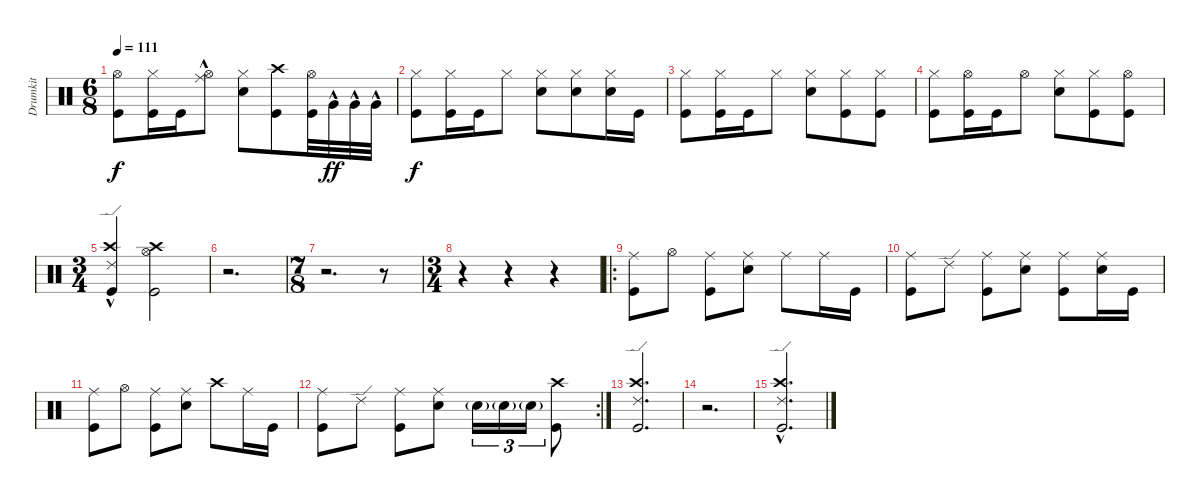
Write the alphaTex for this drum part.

\track ("Drumkit" "Drumkit") {instrument percussion}
\staff {score}
\articulation defaults
\ts (6 8)
\tempo 111
\clef neutral
\ks c
("Kick (hit)" "Hi-Hat (open)").8{dy f} ("Kick (hit)" "Hi-Hat (closed)").16 "Kick (hit)".16 ("Ride (middle)"{hac} "Hi-Hat (open)"{hac}).8 ("Snare (hit) 2" "Hi-Hat (closed)").8 ("Kick (hit)" "Crash high (hit)").8 ("Kick (hit)" "Hi-Hat (open)").32 "Very Low Tom (hit)"{hac}.32{dy ff} "Very Low Tom (hit)"{hac}.32 "Very Low Tom (hit)"{hac}.32 |
("Kick (hit)" "Hi-Hat (closed)").8{dy f} ("Kick (hit)" "Hi-Hat (closed)").16 "Kick (hit)".16 "Hi-Hat (closed)".8 ("Hi-Hat (closed)" "Snare (hit) 2").8 ("Hi-Hat (closed)" "Snare (hit) 2").8 ("Hi-Hat (closed)" "Snare (hit) 2").16 "Kick (hit)".16 |
("Kick (hit)" "Hi-Hat (closed)").8 ("Kick (hit)" "Hi-Hat (closed)").16 "Kick (hit)".16 "Hi-Hat (closed)".8 ("Hi-Hat (closed)" "Snare (hit) 2").8 ("Hi-Hat (closed)" "Kick (hit)").8 ("Hi-Hat (closed)" "Kick (hit)").8 |
("Kick (hit)" "Hi-Hat (closed)").8 ("Kick (hit)" "Hi-Hat (open)").16 "Kick (hit)".16 "Hi-Hat (open)".8 ("Hi-Hat (closed)" "Snare (hit) 2").8 ("Hi-Hat (closed)" "Kick (hit)").8 ("Hi-Hat (open)" "Kick (hit)").8 |
\ts (3 4)
("Kick (hit)" "Crash high (hit)"{hac} "Ride (edge) 2"{hac}).4 ("Kick (hit)" "Hi-Hat (open)" "Crash high (hit)").2 |
r.2{d} |
\ts (7 8)
r.2{d} r.8 |
\ts (3 4)
r.4 r.4 r.4 |
\ro
("Kick (hit)" "Ride (middle)").8 "Hi-Hat (open)".8 ("Kick (hit)" "Ride (middle)").8 ("Snare (hit) 2" "Ride (middle)").8 "Ride (middle)".8 "Ride (middle)".16 "Kick (hit)".16 |
("Kick (hit)" "Ride (middle)").8 "Ride (edge) 2".8 ("Kick (hit)" "Ride (middle)").8 ("Snare (hit) 2" "Ride (middle)").8 ("Ride (middle)" "Kick (hit)").8 ("Ride (middle)" "Snare (hit) 2").16 "Kick (hit)".16 |
("Kick (hit)" "Ride (middle)").8 "Hi-Hat (open)".8 ("Kick (hit)" "Ride (middle)").8 ("Snare (hit) 2" "Ride (middle)").8 "Crash high (hit)".8 "Ride (middle)".16 "Kick (hit)".16 |
\rc 2
("Kick (hit)" "Ride (middle)").8 "Ride (edge) 2".8 ("Kick (hit)" "Ride (middle)").8 ("Snare (hit) 2" "Ride (middle)").8 "Snare (hit) 2"{g}.16{tu (3 2)} "Snare (hit) 2"{g}.16{tu (3 2)} "Snare (hit) 2"{g}.16{tu (3 2)} ("Kick (hit)" "Crash high (hit)").8 |
("Kick (hit)" "Crash high (hit)" "Ride (edge) 2").2{d} |
r.2{d} |
("Kick (hit)" "Crash high (hit)"{hac} "Ride (edge) 2"{hac}).2{d}
